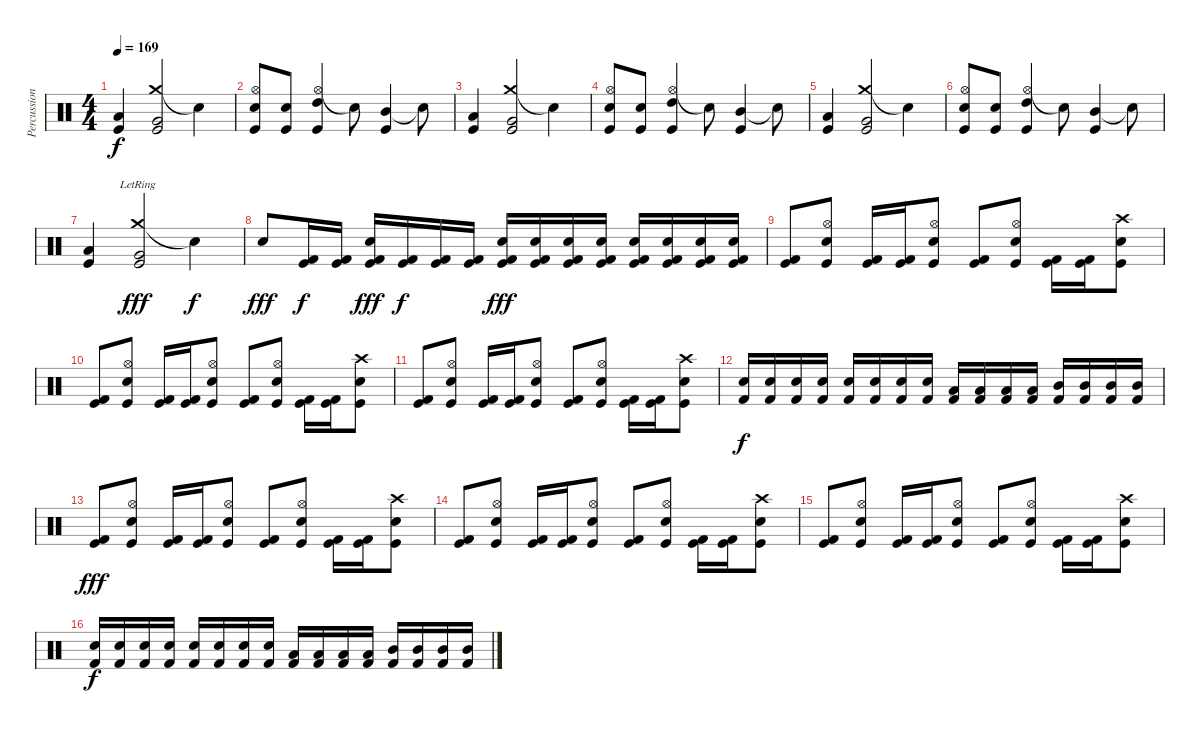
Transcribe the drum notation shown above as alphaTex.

\track ("Percussion" "Percussion") {instrument percussion}
\staff {score}
\articulation defaults
\ts (4 4)
\tempo 169
\clef neutral
\ks c
("Low Tom (hit)" "Kick (hit)").4{dy f} ("Crash medium (hit)" "Very Low Tom (hit)" "Kick (hit)").2 "Snare (hit)"{t}.4 |
("Hi-Hat (open)" "Electric Snare (hit)" "Kick (hit)").8 ("Electric Snare (hit)" "Kick (hit)").8 ("Hi-Hat (open)" "High Tom (hit)" "Kick (hit)").4 "Snare (hit)"{t}.8 ("Mid Tom (hit)" "Kick (hit)").4 "Snare (hit)"{t}.8 |
("Low Tom (hit)" "Kick (hit)").4 ("Crash medium (hit)" "Very Low Tom (hit)" "Kick (hit)").2 "Snare (hit)"{t}.4 |
("Hi-Hat (open)" "Electric Snare (hit)" "Kick (hit)").8 ("Electric Snare (hit)" "Kick (hit)").8 ("Hi-Hat (open)" "High Tom (hit)" "Kick (hit)").4 "Snare (hit)"{t}.8 ("Mid Tom (hit)" "Kick (hit)").4 "Snare (hit)"{t}.8 |
("Low Tom (hit)" "Kick (hit)").4 ("Crash medium (hit)" "Very Low Tom (hit)" "Kick (hit)").2 "Snare (hit)"{t}.4 |
("Hi-Hat (open)" "Electric Snare (hit)" "Kick (hit)").8 ("Electric Snare (hit)" "Kick (hit)").8 ("Hi-Hat (open)" "High Tom (hit)" "Kick (hit)").4 "Snare (hit)"{t}.8 ("Mid Tom (hit)" "Kick (hit)").4 "Snare (hit)"{t}.8 |
("Low Tom (hit)" "Kick (hit)").4 ("Crash medium (hit)"{lr} "Very Low Tom (hit)" "Kick (hit)").2{dy fff} "Snare (hit)"{t}.4{dy f} |
"Electric Snare (hit)".8{dy fff} ("Kick (hit) 2" "Kick (hit)").16{dy f} ("Kick (hit) 2" "Kick (hit)").16 ("Kick (hit) 2" "Electric Snare (hit)" "Kick (hit)").16{dy fff} ("Kick (hit) 2" "Kick (hit)").16{dy f} ("Kick (hit) 2" "Kick (hit)").16 ("Kick (hit) 2" "Kick (hit)").16 ("Kick (hit) 2" "Snare (hit) 2" "Kick (hit)").16{dy fff} ("Kick (hit) 2" "Snare (hit) 2" "Kick (hit)").16 ("Kick (hit) 2" "Snare (hit) 2" "Kick (hit)").16 ("Kick (hit) 2" "Snare (hit) 2" "Kick (hit)").16 ("Kick (hit) 2" "Snare (hit) 2" "Kick (hit)").16 ("Kick (hit) 2" "Snare (hit) 2" "Kick (hit)").16 ("Kick (hit) 2" "Snare (hit) 2" "Kick (hit)").16 ("Kick (hit) 2" "Snare (hit) 2" "Kick (hit)").16 |
("Kick (hit) 2" "Kick (hit)").8 ("Hi-Hat (open)" "Electric Snare (hit)" "Kick (hit)").8 ("Kick (hit) 2" "Kick (hit)").16 ("Kick (hit) 2" "Kick (hit)").16 ("Hi-Hat (open)" "Electric Snare (hit)" "Kick (hit)").8 ("Kick (hit) 2" "Kick (hit)").8 ("Hi-Hat (open)" "Electric Snare (hit)" "Kick (hit)").8 ("Kick (hit) 2" "Kick (hit)").16 ("Kick (hit) 2" "Kick (hit)").16 ("Crash high (hit)" "Electric Snare (hit)" "Kick (hit)").8 |
("Kick (hit) 2" "Kick (hit)").8 ("Hi-Hat (open)" "Electric Snare (hit)" "Kick (hit)").8 ("Kick (hit) 2" "Kick (hit)").16 ("Kick (hit) 2" "Kick (hit)").16 ("Hi-Hat (open)" "Electric Snare (hit)" "Kick (hit)").8 ("Kick (hit) 2" "Kick (hit)").8 ("Hi-Hat (open)" "Electric Snare (hit)" "Kick (hit)").8 ("Kick (hit) 2" "Kick (hit)").16 ("Kick (hit) 2" "Kick (hit)").16 ("Crash high (hit)" "Electric Snare (hit)" "Kick (hit)").8 |
("Kick (hit) 2" "Kick (hit)").8 ("Hi-Hat (open)" "Electric Snare (hit)" "Kick (hit)").8 ("Kick (hit) 2" "Kick (hit)").16 ("Kick (hit) 2" "Kick (hit)").16 ("Hi-Hat (open)" "Electric Snare (hit)" "Kick (hit)").8 ("Kick (hit) 2" "Kick (hit)").8 ("Hi-Hat (open)" "Electric Snare (hit)" "Kick (hit)").8 ("Kick (hit) 2" "Kick (hit)").16 ("Kick (hit) 2" "Kick (hit)").16 ("Crash high (hit)" "Electric Snare (hit)" "Kick (hit)").8 |
("Electric Snare (hit)" "Kick (hit) 2").16{dy f} ("Electric Snare (hit)" "Kick (hit) 2").16 ("Electric Snare (hit)" "Kick (hit) 2").16 ("Electric Snare (hit)" "Kick (hit) 2").16 ("Snare (hit) 2" "Kick (hit) 2").16 ("Snare (hit) 2" "Kick (hit) 2").16 ("Snare (hit) 2" "Kick (hit) 2").16 ("Snare (hit) 2" "Kick (hit) 2").16 ("Low Tom (hit)" "Kick (hit) 2").16 ("Low Tom (hit)" "Kick (hit) 2").16 ("Low Tom (hit)" "Kick (hit) 2").16 ("Low Tom (hit)" "Kick (hit) 2").16 ("Mid Tom (hit)" "Kick (hit) 2").16 ("Mid Tom (hit)" "Kick (hit) 2").16 ("Mid Tom (hit)" "Kick (hit) 2").16 ("Mid Tom (hit)" "Kick (hit) 2").16 |
("Kick (hit) 2" "Kick (hit)").8{dy fff} ("Hi-Hat (open)" "Electric Snare (hit)" "Kick (hit)").8 ("Kick (hit) 2" "Kick (hit)").16 ("Kick (hit) 2" "Kick (hit)").16 ("Hi-Hat (open)" "Electric Snare (hit)" "Kick (hit)").8 ("Kick (hit) 2" "Kick (hit)").8 ("Hi-Hat (open)" "Electric Snare (hit)" "Kick (hit)").8 ("Kick (hit) 2" "Kick (hit)").16 ("Kick (hit) 2" "Kick (hit)").16 ("Crash high (hit)" "Electric Snare (hit)" "Kick (hit)").8 |
("Kick (hit) 2" "Kick (hit)").8 ("Hi-Hat (open)" "Electric Snare (hit)" "Kick (hit)").8 ("Kick (hit) 2" "Kick (hit)").16 ("Kick (hit) 2" "Kick (hit)").16 ("Hi-Hat (open)" "Electric Snare (hit)" "Kick (hit)").8 ("Kick (hit) 2" "Kick (hit)").8 ("Hi-Hat (open)" "Electric Snare (hit)" "Kick (hit)").8 ("Kick (hit) 2" "Kick (hit)").16 ("Kick (hit) 2" "Kick (hit)").16 ("Crash high (hit)" "Electric Snare (hit)" "Kick (hit)").8 |
("Kick (hit) 2" "Kick (hit)").8 ("Hi-Hat (open)" "Electric Snare (hit)" "Kick (hit)").8 ("Kick (hit) 2" "Kick (hit)").16 ("Kick (hit) 2" "Kick (hit)").16 ("Hi-Hat (open)" "Electric Snare (hit)" "Kick (hit)").8 ("Kick (hit) 2" "Kick (hit)").8 ("Hi-Hat (open)" "Electric Snare (hit)" "Kick (hit)").8 ("Kick (hit) 2" "Kick (hit)").16 ("Kick (hit) 2" "Kick (hit)").16 ("Crash high (hit)" "Electric Snare (hit)" "Kick (hit)").8 |
("Electric Snare (hit)" "Kick (hit) 2").16{dy f} ("Electric Snare (hit)" "Kick (hit) 2").16 ("Electric Snare (hit)" "Kick (hit) 2").16 ("Electric Snare (hit)" "Kick (hit) 2").16 ("Snare (hit) 2" "Kick (hit) 2").16 ("Snare (hit) 2" "Kick (hit) 2").16 ("Snare (hit) 2" "Kick (hit) 2").16 ("Snare (hit) 2" "Kick (hit) 2").16 ("Low Tom (hit)" "Kick (hit) 2").16 ("Low Tom (hit)" "Kick (hit) 2").16 ("Low Tom (hit)" "Kick (hit) 2").16 ("Low Tom (hit)" "Kick (hit) 2").16 ("Mid Tom (hit)" "Kick (hit) 2").16 ("Mid Tom (hit)" "Kick (hit) 2").16 ("Mid Tom (hit)" "Kick (hit) 2").16 ("Mid Tom (hit)" "Kick (hit) 2").16
